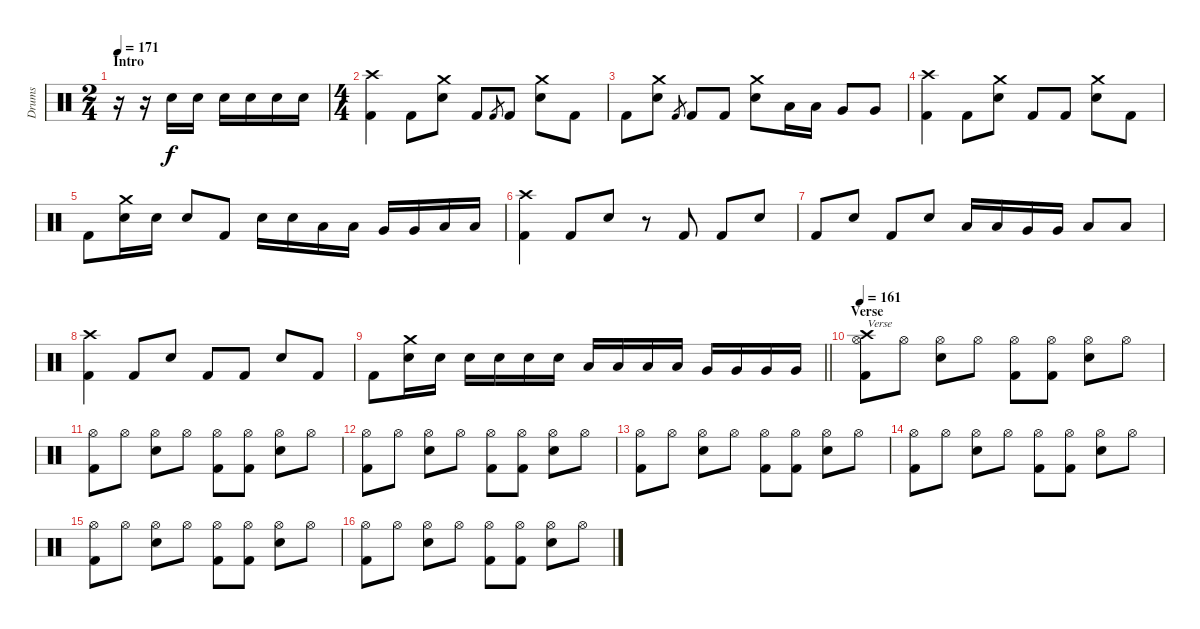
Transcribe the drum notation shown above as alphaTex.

\track ("Drums" "Drums") {instrument percussion}
\staff {score}
\articulation defaults
\ts (2 4)
\section ("" "Intro")
\tempo 171
\clef neutral
\ks c
r.16{dy f} r.16 "Electric Snare (hit)".16 "Electric Snare (hit)".16 "Electric Snare (hit)".16 "Electric Snare (hit)".16 "Electric Snare (hit)".16 "Electric Snare (hit)".16 |
\ts (4 4)
("Crash high (hit)" "Kick (hit) 2").4 "Kick (hit) 2".8 ("Crash medium (hit)" "Electric Snare (hit)").8 "Kick (hit) 2".8 "Kick (hit) 2".8{gr} "Kick (hit) 2".8 ("Crash medium (hit)" "Electric Snare (hit)").8 "Kick (hit) 2".8 |
"Kick (hit) 2".8 ("Crash medium (hit)" "Electric Snare (hit)").8 "Kick (hit) 2".8{gr} "Kick (hit) 2".8 "Kick (hit) 2".8 ("Crash medium (hit)" "Electric Snare (hit)").8 "Low Tom (hit)".16 "Low Tom (hit)".16 "Very Low Tom (hit)".8 "Very Low Tom (hit)".8 |
("Crash high (hit)" "Kick (hit) 2").4 "Kick (hit) 2".8 ("Crash medium (hit)" "Electric Snare (hit)").8 "Kick (hit) 2".8 "Kick (hit) 2".8 ("Crash medium (hit)" "Electric Snare (hit)").8 "Kick (hit) 2".8 |
"Kick (hit) 2".8 ("Crash medium (hit)" "Electric Snare (hit)").16 "Electric Snare (hit)".16 "Electric Snare (hit)".8 "Kick (hit) 2".8 "Electric Snare (hit)".16 "Electric Snare (hit)".16 "Low Tom (hit)".16 "Low Tom (hit)".16 "Very Low Tom (hit)".16 "Very Low Tom (hit)".16 "Low Floor Tom (hit)".16 "Low Floor Tom (hit)".16 |
("Crash high (hit)" "Kick (hit) 2").4 "Kick (hit) 2".8 "Electric Snare (hit)".8 r.8 "Kick (hit) 2".8 "Kick (hit) 2".8 "Electric Snare (hit)".8 |
"Kick (hit) 2".8 "Electric Snare (hit)".8 "Kick (hit) 2".8 "Electric Snare (hit)".8 "Low Tom (hit)".16 "Low Tom (hit)".16 "Very Low Tom (hit)".16 "Very Low Tom (hit)".16 "Low Floor Tom (hit)".8 "Low Floor Tom (hit)".8 |
("Crash high (hit)" "Kick (hit) 2").4 "Kick (hit) 2".8 "Electric Snare (hit)".8 "Kick (hit) 2".8 "Kick (hit) 2".8 "Electric Snare (hit)".8 "Kick (hit) 2".8 |
\barLineRight lightlight "Kick (hit) 2".8
("Crash medium (hit)" "Electric Snare (hit)").16 "Electric Snare (hit)".16 "Electric Snare (hit)".16 "Electric Snare (hit)".16 "Electric Snare (hit)".16 "Electric Snare (hit)".16 "Low Tom (hit)".16 "Low Tom (hit)".16 "Low Tom (hit)".16 "Low Tom (hit)".16 "Very Low Tom (hit)".16 "Very Low Tom (hit)".16 "Very Low Tom (hit)".16 "Very Low Tom (hit)".16 |
\section ("" "Verse")
\tempo 161
("Crash high (hit)" "Hi-Hat (open)" "Kick (hit) 2").8{txt "Verse"} "Hi-Hat (open)".8 ("Hi-Hat (open)" "Electric Snare (hit)").8 "Hi-Hat (open)".8 ("Hi-Hat (open)" "Kick (hit) 2").8 ("Hi-Hat (open)" "Kick (hit) 2").8 ("Hi-Hat (open)" "Electric Snare (hit)").8 "Hi-Hat (open)".8 |
("Hi-Hat (open)" "Kick (hit) 2").8 "Hi-Hat (open)".8 ("Hi-Hat (open)" "Electric Snare (hit)").8 "Hi-Hat (open)".8 ("Hi-Hat (open)" "Kick (hit) 2").8 ("Hi-Hat (open)" "Kick (hit) 2").8 ("Hi-Hat (open)" "Electric Snare (hit)").8 "Hi-Hat (open)".8 |
("Hi-Hat (open)" "Kick (hit) 2").8 "Hi-Hat (open)".8 ("Hi-Hat (open)" "Electric Snare (hit)").8 "Hi-Hat (open)".8 ("Hi-Hat (open)" "Kick (hit) 2").8 ("Hi-Hat (open)" "Kick (hit) 2").8 ("Hi-Hat (open)" "Electric Snare (hit)").8 "Hi-Hat (open)".8 |
("Hi-Hat (open)" "Kick (hit) 2").8 "Hi-Hat (open)".8 ("Hi-Hat (open)" "Electric Snare (hit)").8 "Hi-Hat (open)".8 ("Hi-Hat (open)" "Kick (hit) 2").8 ("Hi-Hat (open)" "Kick (hit) 2").8 ("Hi-Hat (open)" "Electric Snare (hit)").8 "Hi-Hat (open)".8 |
("Hi-Hat (open)" "Kick (hit) 2").8 "Hi-Hat (open)".8 ("Hi-Hat (open)" "Electric Snare (hit)").8 "Hi-Hat (open)".8 ("Hi-Hat (open)" "Kick (hit) 2").8 ("Hi-Hat (open)" "Kick (hit) 2").8 ("Hi-Hat (open)" "Electric Snare (hit)").8 "Hi-Hat (open)".8 |
("Hi-Hat (open)" "Kick (hit) 2").8 "Hi-Hat (open)".8 ("Hi-Hat (open)" "Electric Snare (hit)").8 "Hi-Hat (open)".8 ("Hi-Hat (open)" "Kick (hit) 2").8 ("Hi-Hat (open)" "Kick (hit) 2").8 ("Hi-Hat (open)" "Electric Snare (hit)").8 "Hi-Hat (open)".8 |
("Hi-Hat (open)" "Kick (hit) 2").8 "Hi-Hat (open)".8 ("Hi-Hat (open)" "Electric Snare (hit)").8 "Hi-Hat (open)".8 ("Hi-Hat (open)" "Kick (hit) 2").8 ("Hi-Hat (open)" "Kick (hit) 2").8 ("Hi-Hat (open)" "Electric Snare (hit)").8 "Hi-Hat (open)".8
